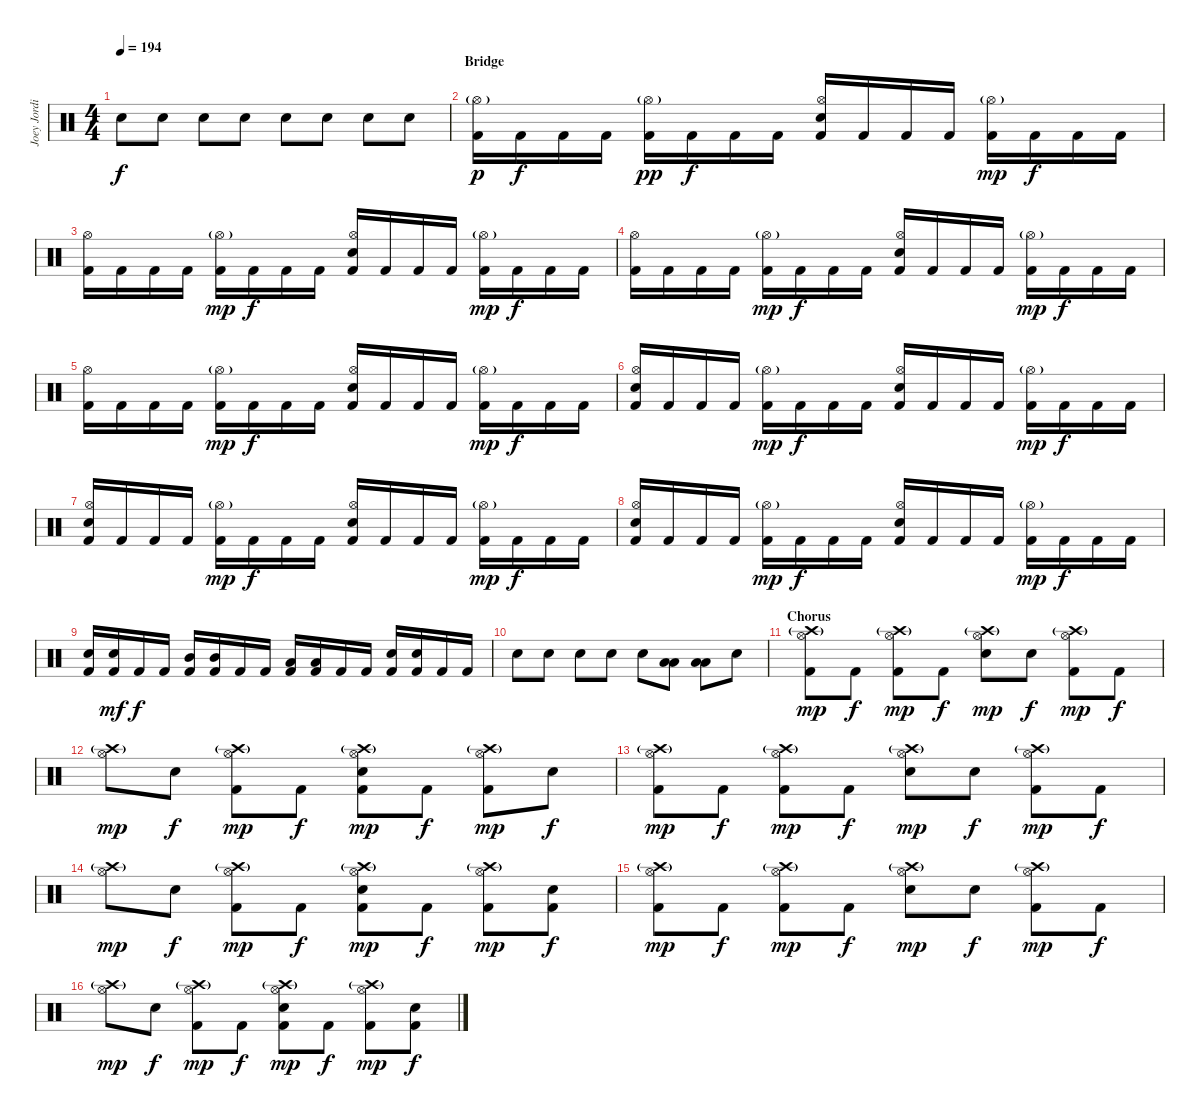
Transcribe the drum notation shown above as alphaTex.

\track ("Joey Jordison" "Joey Jordi") {instrument percussion}
\staff {score}
\articulation defaults
\ts (4 4)
\tempo 194
\clef neutral
\ks c "Snare (hit) 2".8{dy f} "Snare (hit) 2".8 "Snare (hit) 2".8 "Snare (hit) 2".8 "Snare (hit) 2".8 "Snare (hit) 2".8 "Snare (hit) 2".8 "Snare (hit) 2".8
|
\section ("" "Bridge")
("Hi-Hat (open)"{g} "Kick (hit) 2").16{dy p} "Kick (hit) 2".16{dy f} "Kick (hit) 2".16 "Kick (hit) 2".16 ("Hi-Hat (open)"{g} "Kick (hit) 2").16{dy pp} "Kick (hit) 2".16{dy f} "Kick (hit) 2".16 "Kick (hit) 2".16 ("Hi-Hat (open)" "Snare (hit) 2" "Kick (hit) 2").16 "Kick (hit) 2".16 "Kick (hit) 2".16 "Kick (hit) 2".16 ("Hi-Hat (open)"{g} "Kick (hit) 2").16{dy mp} "Kick (hit) 2".16{dy f} "Kick (hit) 2".16 "Kick (hit) 2".16 |
("Hi-Hat (open)" "Kick (hit) 2").16 "Kick (hit) 2".16 "Kick (hit) 2".16 "Kick (hit) 2".16 ("Hi-Hat (open)"{g} "Kick (hit) 2").16{dy mp} "Kick (hit) 2".16{dy f} "Kick (hit) 2".16 "Kick (hit) 2".16 ("Hi-Hat (open)" "Snare (hit) 2" "Kick (hit) 2").16 "Kick (hit) 2".16 "Kick (hit) 2".16 "Kick (hit) 2".16 ("Hi-Hat (open)"{g} "Kick (hit) 2").16{dy mp} "Kick (hit) 2".16{dy f} "Kick (hit) 2".16 "Kick (hit) 2".16 |
("Hi-Hat (open)" "Kick (hit) 2").16 "Kick (hit) 2".16 "Kick (hit) 2".16 "Kick (hit) 2".16 ("Hi-Hat (open)"{g} "Kick (hit) 2").16{dy mp} "Kick (hit) 2".16{dy f} "Kick (hit) 2".16 "Kick (hit) 2".16 ("Hi-Hat (open)" "Snare (hit) 2" "Kick (hit) 2").16 "Kick (hit) 2".16 "Kick (hit) 2".16 "Kick (hit) 2".16 ("Hi-Hat (open)"{g} "Kick (hit) 2").16{dy mp} "Kick (hit) 2".16{dy f} "Kick (hit) 2".16 "Kick (hit) 2".16 |
("Hi-Hat (open)" "Kick (hit) 2").16 "Kick (hit) 2".16 "Kick (hit) 2".16 "Kick (hit) 2".16 ("Hi-Hat (open)"{g} "Kick (hit) 2").16{dy mp} "Kick (hit) 2".16{dy f} "Kick (hit) 2".16 "Kick (hit) 2".16 ("Hi-Hat (open)" "Snare (hit) 2" "Kick (hit) 2").16 "Kick (hit) 2".16 "Kick (hit) 2".16 "Kick (hit) 2".16 ("Hi-Hat (open)"{g} "Kick (hit) 2").16{dy mp} "Kick (hit) 2".16{dy f} "Kick (hit) 2".16 "Kick (hit) 2".16 |
("Hi-Hat (open)" "Snare (hit) 2" "Kick (hit) 2").16 "Kick (hit) 2".16 "Kick (hit) 2".16 "Kick (hit) 2".16 ("Hi-Hat (open)"{g} "Kick (hit) 2").16{dy mp} "Kick (hit) 2".16{dy f} "Kick (hit) 2".16 "Kick (hit) 2".16 ("Hi-Hat (open)" "Snare (hit) 2" "Kick (hit) 2").16 "Kick (hit) 2".16 "Kick (hit) 2".16 "Kick (hit) 2".16 ("Hi-Hat (open)"{g} "Kick (hit) 2").16{dy mp} "Kick (hit) 2".16{dy f} "Kick (hit) 2".16 "Kick (hit) 2".16 |
("Hi-Hat (open)" "Snare (hit) 2" "Kick (hit) 2").16 "Kick (hit) 2".16 "Kick (hit) 2".16 "Kick (hit) 2".16 ("Hi-Hat (open)"{g} "Kick (hit) 2").16{dy mp} "Kick (hit) 2".16{dy f} "Kick (hit) 2".16 "Kick (hit) 2".16 ("Hi-Hat (open)" "Snare (hit) 2" "Kick (hit) 2").16 "Kick (hit) 2".16 "Kick (hit) 2".16 "Kick (hit) 2".16 ("Hi-Hat (open)"{g} "Kick (hit) 2").16{dy mp} "Kick (hit) 2".16{dy f} "Kick (hit) 2".16 "Kick (hit) 2".16 |
("Hi-Hat (open)" "Snare (hit) 2" "Kick (hit) 2").16 "Kick (hit) 2".16 "Kick (hit) 2".16 "Kick (hit) 2".16 ("Hi-Hat (open)"{g} "Kick (hit) 2").16{dy mp} "Kick (hit) 2".16{dy f} "Kick (hit) 2".16 "Kick (hit) 2".16 ("Hi-Hat (open)" "Snare (hit) 2" "Kick (hit) 2").16 "Kick (hit) 2".16 "Kick (hit) 2".16 "Kick (hit) 2".16 ("Hi-Hat (open)"{g} "Kick (hit) 2").16{dy mp} "Kick (hit) 2".16{dy f} "Kick (hit) 2".16 "Kick (hit) 2".16 |
("Snare (hit) 2" "Kick (hit) 2").16 ("Snare (hit) 2" "Kick (hit) 2").16{dy mf} "Kick (hit) 2".16{dy f} "Kick (hit) 2".16 ("Mid Tom (hit)" "Kick (hit) 2").16 ("Mid Tom (hit)" "Kick (hit) 2").16 "Kick (hit) 2".16 "Kick (hit) 2".16 ("Low Tom (hit)" "Kick (hit) 2").16 ("Low Tom (hit)" "Kick (hit) 2").16 "Kick (hit) 2".16 "Kick (hit) 2".16 ("Snare (hit) 2" "Kick (hit) 2").16 ("Snare (hit) 2" "Kick (hit) 2").16 "Kick (hit) 2".16 "Kick (hit) 2".16 |
"Snare (hit) 2".8 "Snare (hit) 2".8 "Snare (hit) 2".8 "Snare (hit) 2".8 "Snare (hit) 2".8 ("Low Tom (hit)" "Low Tom (hit)").8 ("Low Tom (hit)" "Low Tom (hit)").8 "Snare (hit) 2".8 |
\section ("" "Chorus")
("Hi-Hat (open)" "Crash high (hit)"{g} "Kick (hit) 2").8{dy mp} "Kick (hit) 2".8{dy f} ("Hi-Hat (open)" "Crash high (hit)"{g} "Kick (hit) 2").8{dy mp} "Kick (hit) 2".8{dy f} ("Hi-Hat (open)" "Crash high (hit)"{g} "Snare (hit) 2").8{dy mp} "Snare (hit) 2".8{dy f} ("Hi-Hat (open)" "Crash high (hit)"{g} "Kick (hit) 2").8{dy mp} "Kick (hit) 2".8{dy f} |
("Hi-Hat (open)" "Crash high (hit)"{g}).8{dy mp} "Snare (hit) 2".8{dy f} ("Hi-Hat (open)" "Crash high (hit)"{g} "Kick (hit) 2").8{dy mp} "Kick (hit) 2".8{dy f} ("Hi-Hat (open)" "Crash high (hit)"{g} "Snare (hit) 2" "Kick (hit) 2").8{dy mp} "Kick (hit) 2".8{dy f} ("Hi-Hat (open)" "Crash high (hit)"{g} "Kick (hit) 2").8{dy mp} "Snare (hit) 2".8{dy f} |
("Hi-Hat (open)" "Crash high (hit)"{g} "Kick (hit) 2").8{dy mp} "Kick (hit) 2".8{dy f} ("Hi-Hat (open)" "Crash high (hit)"{g} "Kick (hit) 2").8{dy mp} "Kick (hit) 2".8{dy f} ("Hi-Hat (open)" "Crash high (hit)"{g} "Snare (hit) 2").8{dy mp} "Snare (hit) 2".8{dy f} ("Hi-Hat (open)" "Crash high (hit)"{g} "Kick (hit) 2").8{dy mp} "Kick (hit) 2".8{dy f} |
("Hi-Hat (open)" "Crash high (hit)"{g}).8{dy mp} "Snare (hit) 2".8{dy f} ("Hi-Hat (open)" "Crash high (hit)"{g} "Kick (hit) 2").8{dy mp} "Kick (hit) 2".8{dy f} ("Hi-Hat (open)" "Crash high (hit)"{g} "Snare (hit) 2" "Kick (hit) 2").8{dy mp} "Kick (hit) 2".8{dy f} ("Hi-Hat (open)" "Crash high (hit)"{g} "Kick (hit) 2").8{dy mp} ("Snare (hit) 2" "Kick (hit) 2").8{dy f} |
("Hi-Hat (open)" "Crash high (hit)"{g} "Kick (hit) 2").8{dy mp} "Kick (hit) 2".8{dy f} ("Hi-Hat (open)" "Crash high (hit)"{g} "Kick (hit) 2").8{dy mp} "Kick (hit) 2".8{dy f} ("Hi-Hat (open)" "Crash high (hit)"{g} "Snare (hit) 2").8{dy mp} "Snare (hit) 2".8{dy f} ("Hi-Hat (open)" "Crash high (hit)"{g} "Kick (hit) 2").8{dy mp} "Kick (hit) 2".8{dy f} |
("Hi-Hat (open)" "Crash high (hit)"{g}).8{dy mp} "Snare (hit) 2".8{dy f} ("Hi-Hat (open)" "Crash high (hit)"{g} "Kick (hit) 2").8{dy mp} "Kick (hit) 2".8{dy f} ("Hi-Hat (open)" "Crash high (hit)"{g} "Snare (hit) 2" "Kick (hit) 2").8{dy mp} "Kick (hit) 2".8{dy f} ("Hi-Hat (open)" "Crash high (hit)"{g} "Kick (hit) 2").8{dy mp} ("Snare (hit) 2" "Kick (hit) 2").8{dy f}
